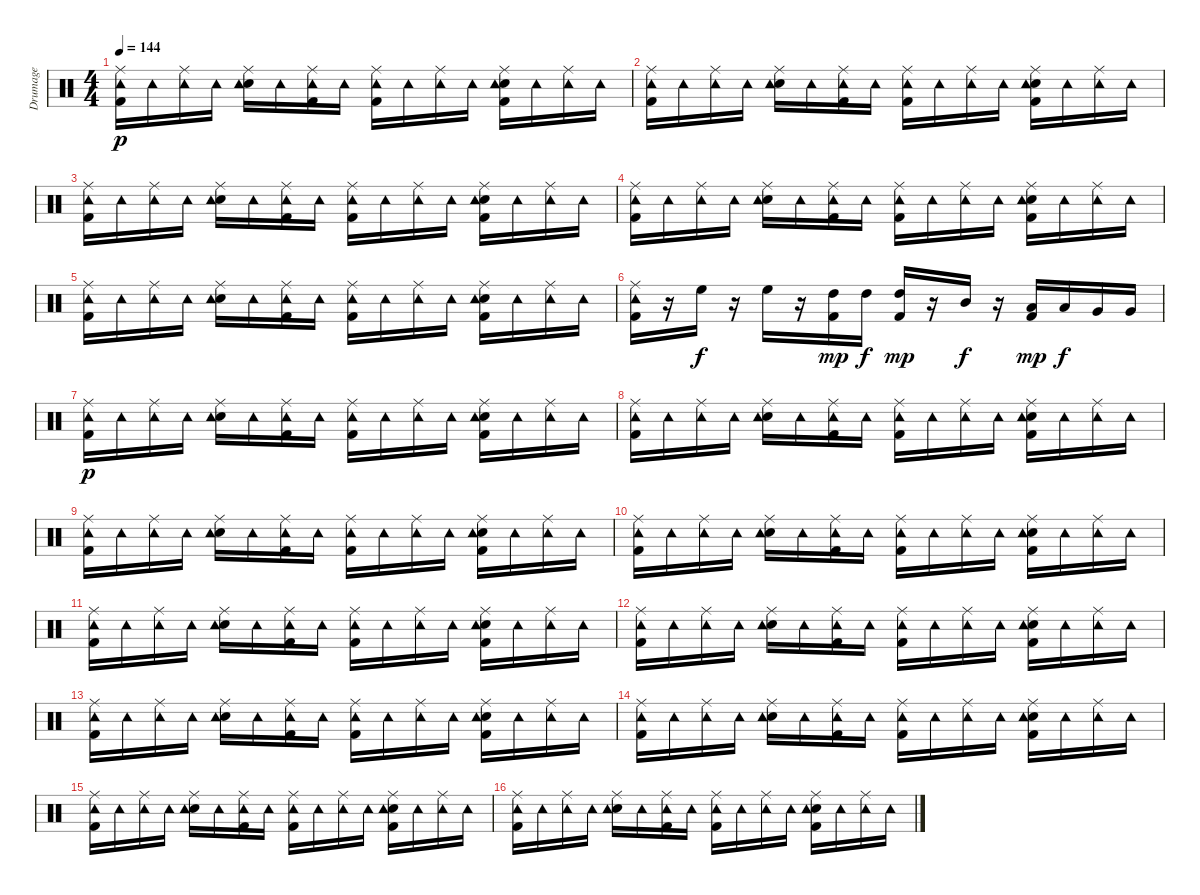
\track ("Drumage" "Drumage") {instrument percussion}
\staff {score}
\articulation defaults
\ts (4 4)
\tempo 144
\clef neutral
\ks c
("Ride (middle)" "Kick (hit) 2" "Tambourine (hit)").16{dy p} "Tambourine (hit)".16 ("Ride (middle)" "Tambourine (hit)").16 "Tambourine (hit)".16 ("Ride (middle)" "Electric Snare (hit)" "Tambourine (hit)").16 "Tambourine (hit)".16 ("Ride (middle)" "Kick (hit) 2" "Tambourine (hit)").16 "Tambourine (hit)".16 ("Ride (middle)" "Kick (hit) 2" "Tambourine (hit)").16 "Tambourine (hit)".16 ("Ride (middle)" "Tambourine (hit)").16 "Tambourine (hit)".16 ("Ride (middle)" "Electric Snare (hit)" "Kick (hit) 2" "Tambourine (hit)").16 "Tambourine (hit)".16 ("Ride (middle)" "Tambourine (hit)").16 "Tambourine (hit)".16 |
("Ride (middle)" "Kick (hit) 2" "Tambourine (hit)").16 "Tambourine (hit)".16 ("Ride (middle)" "Tambourine (hit)").16 "Tambourine (hit)".16 ("Ride (middle)" "Electric Snare (hit)" "Tambourine (hit)").16 "Tambourine (hit)".16 ("Ride (middle)" "Kick (hit) 2" "Tambourine (hit)").16 "Tambourine (hit)".16 ("Ride (middle)" "Kick (hit) 2" "Tambourine (hit)").16 "Tambourine (hit)".16 ("Ride (middle)" "Tambourine (hit)").16 "Tambourine (hit)".16 ("Ride (middle)" "Electric Snare (hit)" "Kick (hit) 2" "Tambourine (hit)").16 "Tambourine (hit)".16 ("Ride (middle)" "Tambourine (hit)").16 "Tambourine (hit)".16 |
("Ride (middle)" "Kick (hit) 2" "Tambourine (hit)").16 "Tambourine (hit)".16 ("Ride (middle)" "Tambourine (hit)").16 "Tambourine (hit)".16 ("Ride (middle)" "Electric Snare (hit)" "Tambourine (hit)").16 "Tambourine (hit)".16 ("Ride (middle)" "Kick (hit) 2" "Tambourine (hit)").16 "Tambourine (hit)".16 ("Ride (middle)" "Kick (hit) 2" "Tambourine (hit)").16 "Tambourine (hit)".16 ("Ride (middle)" "Tambourine (hit)").16 "Tambourine (hit)".16 ("Ride (middle)" "Electric Snare (hit)" "Kick (hit) 2" "Tambourine (hit)").16 "Tambourine (hit)".16 ("Ride (middle)" "Tambourine (hit)").16 "Tambourine (hit)".16 |
("Ride (middle)" "Kick (hit) 2" "Tambourine (hit)").16 "Tambourine (hit)".16 ("Ride (middle)" "Tambourine (hit)").16 "Tambourine (hit)".16 ("Ride (middle)" "Electric Snare (hit)" "Tambourine (hit)").16 "Tambourine (hit)".16 ("Ride (middle)" "Kick (hit) 2" "Tambourine (hit)").16 "Tambourine (hit)".16 ("Ride (middle)" "Kick (hit) 2" "Tambourine (hit)").16 "Tambourine (hit)".16 ("Ride (middle)" "Tambourine (hit)").16 "Tambourine (hit)".16 ("Ride (middle)" "Electric Snare (hit)" "Kick (hit) 2" "Tambourine (hit)").16 "Tambourine (hit)".16 ("Ride (middle)" "Tambourine (hit)").16 "Tambourine (hit)".16 |
("Ride (middle)" "Kick (hit) 2" "Tambourine (hit)").16 "Tambourine (hit)".16 ("Ride (middle)" "Tambourine (hit)").16 "Tambourine (hit)".16 ("Ride (middle)" "Electric Snare (hit)" "Tambourine (hit)").16 "Tambourine (hit)".16 ("Ride (middle)" "Kick (hit) 2" "Tambourine (hit)").16 "Tambourine (hit)".16 ("Ride (middle)" "Kick (hit) 2" "Tambourine (hit)").16 "Tambourine (hit)".16 ("Ride (middle)" "Tambourine (hit)").16 "Tambourine (hit)".16 ("Ride (middle)" "Electric Snare (hit)" "Kick (hit) 2" "Tambourine (hit)").16 "Tambourine (hit)".16 ("Ride (middle)" "Tambourine (hit)").16 "Tambourine (hit)".16 |
("Ride (middle)" "Kick (hit) 2" "Tambourine (hit)").16 r.16 "High Floor Tom (hit)".16{dy f} r.16 "High Floor Tom (hit)".16 r.16 ("High Tom (hit)" "Kick (hit) 2").16{dy mp} "High Tom (hit)".16{dy f} ("High Tom (hit)" "Kick (hit) 2").16{dy mp} r.16 "Mid Tom (hit)".16{dy f} r.16 ("Low Tom (hit)" "Kick (hit) 2").16{dy mp} "Low Tom (hit)".16{dy f} "Very Low Tom (hit)".16 "Very Low Tom (hit)".16 |
("Ride (middle)" "Kick (hit) 2" "Tambourine (hit)").16{dy p} "Tambourine (hit)".16 ("Ride (middle)" "Tambourine (hit)").16 "Tambourine (hit)".16 ("Ride (middle)" "Electric Snare (hit)" "Tambourine (hit)").16 "Tambourine (hit)".16 ("Ride (middle)" "Kick (hit) 2" "Tambourine (hit)").16 "Tambourine (hit)".16 ("Ride (middle)" "Kick (hit) 2" "Tambourine (hit)").16 "Tambourine (hit)".16 ("Ride (middle)" "Tambourine (hit)").16 "Tambourine (hit)".16 ("Ride (middle)" "Electric Snare (hit)" "Kick (hit) 2" "Tambourine (hit)").16 "Tambourine (hit)".16 ("Ride (middle)" "Tambourine (hit)").16 "Tambourine (hit)".16 |
("Ride (middle)" "Kick (hit) 2" "Tambourine (hit)").16 "Tambourine (hit)".16 ("Ride (middle)" "Tambourine (hit)").16 "Tambourine (hit)".16 ("Ride (middle)" "Electric Snare (hit)" "Tambourine (hit)").16 "Tambourine (hit)".16 ("Ride (middle)" "Kick (hit) 2" "Tambourine (hit)").16 "Tambourine (hit)".16 ("Ride (middle)" "Kick (hit) 2" "Tambourine (hit)").16 "Tambourine (hit)".16 ("Ride (middle)" "Tambourine (hit)").16 "Tambourine (hit)".16 ("Ride (middle)" "Electric Snare (hit)" "Kick (hit) 2" "Tambourine (hit)").16 "Tambourine (hit)".16 ("Ride (middle)" "Tambourine (hit)").16 "Tambourine (hit)".16 |
("Ride (middle)" "Kick (hit) 2" "Tambourine (hit)").16 "Tambourine (hit)".16 ("Ride (middle)" "Tambourine (hit)").16 "Tambourine (hit)".16 ("Ride (middle)" "Electric Snare (hit)" "Tambourine (hit)").16 "Tambourine (hit)".16 ("Ride (middle)" "Kick (hit) 2" "Tambourine (hit)").16 "Tambourine (hit)".16 ("Ride (middle)" "Kick (hit) 2" "Tambourine (hit)").16 "Tambourine (hit)".16 ("Ride (middle)" "Tambourine (hit)").16 "Tambourine (hit)".16 ("Ride (middle)" "Electric Snare (hit)" "Kick (hit) 2" "Tambourine (hit)").16 "Tambourine (hit)".16 ("Ride (middle)" "Tambourine (hit)").16 "Tambourine (hit)".16 |
("Ride (middle)" "Kick (hit) 2" "Tambourine (hit)").16 "Tambourine (hit)".16 ("Ride (middle)" "Tambourine (hit)").16 "Tambourine (hit)".16 ("Ride (middle)" "Electric Snare (hit)" "Tambourine (hit)").16 "Tambourine (hit)".16 ("Ride (middle)" "Kick (hit) 2" "Tambourine (hit)").16 "Tambourine (hit)".16 ("Ride (middle)" "Kick (hit) 2" "Tambourine (hit)").16 "Tambourine (hit)".16 ("Ride (middle)" "Tambourine (hit)").16 "Tambourine (hit)".16 ("Ride (middle)" "Electric Snare (hit)" "Kick (hit) 2" "Tambourine (hit)").16 "Tambourine (hit)".16 ("Ride (middle)" "Tambourine (hit)").16 "Tambourine (hit)".16 |
("Ride (middle)" "Kick (hit) 2" "Tambourine (hit)").16 "Tambourine (hit)".16 ("Ride (middle)" "Tambourine (hit)").16 "Tambourine (hit)".16 ("Ride (middle)" "Electric Snare (hit)" "Tambourine (hit)").16 "Tambourine (hit)".16 ("Ride (middle)" "Kick (hit) 2" "Tambourine (hit)").16 "Tambourine (hit)".16 ("Ride (middle)" "Kick (hit) 2" "Tambourine (hit)").16 "Tambourine (hit)".16 ("Ride (middle)" "Tambourine (hit)").16 "Tambourine (hit)".16 ("Ride (middle)" "Electric Snare (hit)" "Kick (hit) 2" "Tambourine (hit)").16 "Tambourine (hit)".16 ("Ride (middle)" "Tambourine (hit)").16 "Tambourine (hit)".16 |
("Ride (middle)" "Kick (hit) 2" "Tambourine (hit)").16 "Tambourine (hit)".16 ("Ride (middle)" "Tambourine (hit)").16 "Tambourine (hit)".16 ("Ride (middle)" "Electric Snare (hit)" "Tambourine (hit)").16 "Tambourine (hit)".16 ("Ride (middle)" "Kick (hit) 2" "Tambourine (hit)").16 "Tambourine (hit)".16 ("Ride (middle)" "Kick (hit) 2" "Tambourine (hit)").16 "Tambourine (hit)".16 ("Ride (middle)" "Tambourine (hit)").16 "Tambourine (hit)".16 ("Ride (middle)" "Electric Snare (hit)" "Kick (hit) 2" "Tambourine (hit)").16 "Tambourine (hit)".16 ("Ride (middle)" "Tambourine (hit)").16 "Tambourine (hit)".16 |
("Ride (middle)" "Kick (hit) 2" "Tambourine (hit)").16 "Tambourine (hit)".16 ("Ride (middle)" "Tambourine (hit)").16 "Tambourine (hit)".16 ("Ride (middle)" "Electric Snare (hit)" "Tambourine (hit)").16 "Tambourine (hit)".16 ("Ride (middle)" "Kick (hit) 2" "Tambourine (hit)").16 "Tambourine (hit)".16 ("Ride (middle)" "Kick (hit) 2" "Tambourine (hit)").16 "Tambourine (hit)".16 ("Ride (middle)" "Tambourine (hit)").16 "Tambourine (hit)".16 ("Ride (middle)" "Electric Snare (hit)" "Kick (hit) 2" "Tambourine (hit)").16 "Tambourine (hit)".16 ("Ride (middle)" "Tambourine (hit)").16 "Tambourine (hit)".16 |
("Ride (middle)" "Kick (hit) 2" "Tambourine (hit)").16 "Tambourine (hit)".16 ("Ride (middle)" "Tambourine (hit)").16 "Tambourine (hit)".16 ("Ride (middle)" "Electric Snare (hit)" "Tambourine (hit)").16 "Tambourine (hit)".16 ("Ride (middle)" "Kick (hit) 2" "Tambourine (hit)").16 "Tambourine (hit)".16 ("Ride (middle)" "Kick (hit) 2" "Tambourine (hit)").16 "Tambourine (hit)".16 ("Ride (middle)" "Tambourine (hit)").16 "Tambourine (hit)".16 ("Ride (middle)" "Electric Snare (hit)" "Kick (hit) 2" "Tambourine (hit)").16 "Tambourine (hit)".16 ("Ride (middle)" "Tambourine (hit)").16 "Tambourine (hit)".16 |
("Ride (middle)" "Kick (hit) 2" "Tambourine (hit)").16 "Tambourine (hit)".16 ("Ride (middle)" "Tambourine (hit)").16 "Tambourine (hit)".16 ("Ride (middle)" "Electric Snare (hit)" "Tambourine (hit)").16 "Tambourine (hit)".16 ("Ride (middle)" "Kick (hit) 2" "Tambourine (hit)").16 "Tambourine (hit)".16 ("Ride (middle)" "Kick (hit) 2" "Tambourine (hit)").16 "Tambourine (hit)".16 ("Ride (middle)" "Tambourine (hit)").16 "Tambourine (hit)".16 ("Ride (middle)" "Electric Snare (hit)" "Kick (hit) 2" "Tambourine (hit)").16 "Tambourine (hit)".16 ("Ride (middle)" "Tambourine (hit)").16 "Tambourine (hit)".16 |
("Ride (middle)" "Kick (hit) 2" "Tambourine (hit)").16 "Tambourine (hit)".16 ("Ride (middle)" "Tambourine (hit)").16 "Tambourine (hit)".16 ("Ride (middle)" "Electric Snare (hit)" "Tambourine (hit)").16 "Tambourine (hit)".16 ("Ride (middle)" "Kick (hit) 2" "Tambourine (hit)").16 "Tambourine (hit)".16 ("Ride (middle)" "Kick (hit) 2" "Tambourine (hit)").16 "Tambourine (hit)".16 ("Ride (middle)" "Tambourine (hit)").16 "Tambourine (hit)".16 ("Ride (middle)" "Electric Snare (hit)" "Kick (hit) 2" "Tambourine (hit)").16 "Tambourine (hit)".16 ("Ride (middle)" "Tambourine (hit)").16 "Tambourine (hit)".16
